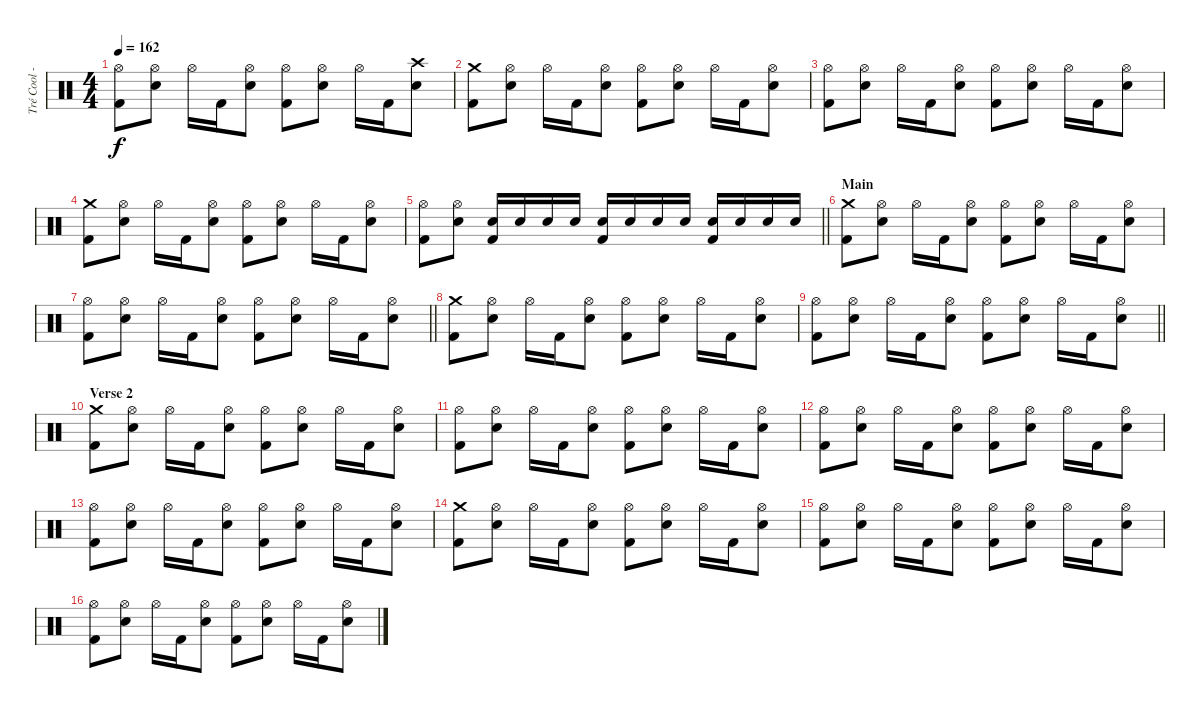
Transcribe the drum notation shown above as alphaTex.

\track ("Tré Cool - Drums" "Tré Cool -") {instrument percussion}
\staff {score}
\articulation defaults
\ts (4 4)
\tempo 162
\clef neutral
\ks c
("Hi-Hat (open)" "Kick (hit) 2").8{dy f} ("Hi-Hat (open)" "Electric Snare (hit)").8 "Hi-Hat (open)".16 "Kick (hit) 2".16 ("Hi-Hat (open)" "Electric Snare (hit)").8 ("Hi-Hat (open)" "Kick (hit) 2").8 ("Hi-Hat (open)" "Electric Snare (hit)").8 "Hi-Hat (open)".16 "Kick (hit) 2".16 ("Crash high (hit)" "Electric Snare (hit)").8 |
("Crash medium (hit)" "Kick (hit) 2").8 ("Hi-Hat (open)" "Electric Snare (hit)").8 "Hi-Hat (open)".16 "Kick (hit) 2".16 ("Hi-Hat (open)" "Electric Snare (hit)").8 ("Hi-Hat (open)" "Kick (hit) 2").8 ("Hi-Hat (open)" "Electric Snare (hit)").8 "Hi-Hat (open)".16 "Kick (hit) 2".16 ("Hi-Hat (open)" "Electric Snare (hit)").8 |
("Hi-Hat (open)" "Kick (hit) 2").8 ("Hi-Hat (open)" "Electric Snare (hit)").8 "Hi-Hat (open)".16 "Kick (hit) 2".16 ("Hi-Hat (open)" "Electric Snare (hit)").8 ("Hi-Hat (open)" "Kick (hit) 2").8 ("Hi-Hat (open)" "Electric Snare (hit)").8 "Hi-Hat (open)".16 "Kick (hit) 2".16 ("Hi-Hat (open)" "Electric Snare (hit)").8 |
("Crash medium (hit)" "Kick (hit) 2").8 ("Hi-Hat (open)" "Electric Snare (hit)").8 "Hi-Hat (open)".16 "Kick (hit) 2".16 ("Hi-Hat (open)" "Electric Snare (hit)").8 ("Hi-Hat (open)" "Kick (hit) 2").8 ("Hi-Hat (open)" "Electric Snare (hit)").8 "Hi-Hat (open)".16 "Kick (hit) 2".16 ("Hi-Hat (open)" "Electric Snare (hit)").8 |
\barLineRight lightlight
("Hi-Hat (open)" "Kick (hit) 2").8 ("Hi-Hat (open)" "Electric Snare (hit)").8 ("Electric Snare (hit)" "Kick (hit) 2").16 "Electric Snare (hit)".16 "Electric Snare (hit)".16 "Electric Snare (hit)".16 ("Electric Snare (hit)" "Kick (hit) 2").16 "Electric Snare (hit)".16 "Electric Snare (hit)".16 "Electric Snare (hit)".16 ("Electric Snare (hit)" "Kick (hit) 2").16 "Electric Snare (hit)".16 "Electric Snare (hit)".16 "Electric Snare (hit)".16 |
\section ("" "Main")
("Crash medium (hit)" "Kick (hit) 2").8 ("Hi-Hat (open)" "Electric Snare (hit)").8 "Hi-Hat (open)".16 "Kick (hit) 2".16 ("Hi-Hat (open)" "Electric Snare (hit)").8 ("Hi-Hat (open)" "Kick (hit) 2").8 ("Hi-Hat (open)" "Electric Snare (hit)").8 "Hi-Hat (open)".16 "Kick (hit) 2".16 ("Hi-Hat (open)" "Electric Snare (hit)").8 |
\barLineRight lightlight
("Hi-Hat (open)" "Kick (hit) 2").8 ("Hi-Hat (open)" "Electric Snare (hit)").8 "Hi-Hat (open)".16 "Kick (hit) 2".16 ("Hi-Hat (open)" "Electric Snare (hit)").8 ("Hi-Hat (open)" "Kick (hit) 2").8 ("Hi-Hat (open)" "Electric Snare (hit)").8 "Hi-Hat (open)".16 "Kick (hit) 2".16 ("Hi-Hat (open)" "Electric Snare (hit)").8 |
("Crash medium (hit)" "Kick (hit) 2").8 ("Hi-Hat (open)" "Electric Snare (hit)").8 "Hi-Hat (open)".16 "Kick (hit) 2".16 ("Hi-Hat (open)" "Electric Snare (hit)").8 ("Hi-Hat (open)" "Kick (hit) 2").8 ("Hi-Hat (open)" "Electric Snare (hit)").8 "Hi-Hat (open)".16 "Kick (hit) 2".16 ("Hi-Hat (open)" "Electric Snare (hit)").8 |
\barLineRight lightlight
("Hi-Hat (open)" "Kick (hit) 2").8 ("Hi-Hat (open)" "Electric Snare (hit)").8 "Hi-Hat (open)".16 "Kick (hit) 2".16 ("Hi-Hat (open)" "Electric Snare (hit)").8 ("Hi-Hat (open)" "Kick (hit) 2").8 ("Hi-Hat (open)" "Electric Snare (hit)").8 "Hi-Hat (open)".16 "Kick (hit) 2".16 ("Hi-Hat (open)" "Electric Snare (hit)").8 |
\section ("" "Verse 2")
("Crash medium (hit)" "Kick (hit) 2").8 ("Hi-Hat (open)" "Electric Snare (hit)").8 "Hi-Hat (open)".16 "Kick (hit) 2".16 ("Hi-Hat (open)" "Electric Snare (hit)").8 ("Hi-Hat (open)" "Kick (hit) 2").8 ("Hi-Hat (open)" "Electric Snare (hit)").8 "Hi-Hat (open)".16 "Kick (hit) 2".16 ("Hi-Hat (open)" "Electric Snare (hit)").8 |
("Hi-Hat (open)" "Kick (hit) 2").8 ("Hi-Hat (open)" "Electric Snare (hit)").8 "Hi-Hat (open)".16 "Kick (hit) 2".16 ("Hi-Hat (open)" "Electric Snare (hit)").8 ("Hi-Hat (open)" "Kick (hit) 2").8 ("Hi-Hat (open)" "Electric Snare (hit)").8 "Hi-Hat (open)".16 "Kick (hit) 2".16 ("Hi-Hat (open)" "Electric Snare (hit)").8 |
("Hi-Hat (open)" "Kick (hit) 2").8 ("Hi-Hat (open)" "Electric Snare (hit)").8 "Hi-Hat (open)".16 "Kick (hit) 2".16 ("Hi-Hat (open)" "Electric Snare (hit)").8 ("Hi-Hat (open)" "Kick (hit) 2").8 ("Hi-Hat (open)" "Electric Snare (hit)").8 "Hi-Hat (open)".16 "Kick (hit) 2".16 ("Hi-Hat (open)" "Electric Snare (hit)").8 |
("Hi-Hat (open)" "Kick (hit) 2").8 ("Hi-Hat (open)" "Electric Snare (hit)").8 "Hi-Hat (open)".16 "Kick (hit) 2".16 ("Hi-Hat (open)" "Electric Snare (hit)").8 ("Hi-Hat (open)" "Kick (hit) 2").8 ("Hi-Hat (open)" "Electric Snare (hit)").8 "Hi-Hat (open)".16 "Kick (hit) 2".16 ("Hi-Hat (open)" "Electric Snare (hit)").8 |
("Crash medium (hit)" "Kick (hit) 2").8 ("Hi-Hat (open)" "Electric Snare (hit)").8 "Hi-Hat (open)".16 "Kick (hit) 2".16 ("Hi-Hat (open)" "Electric Snare (hit)").8 ("Hi-Hat (open)" "Kick (hit) 2").8 ("Hi-Hat (open)" "Electric Snare (hit)").8 "Hi-Hat (open)".16 "Kick (hit) 2".16 ("Hi-Hat (open)" "Electric Snare (hit)").8 |
("Hi-Hat (open)" "Kick (hit) 2").8 ("Hi-Hat (open)" "Electric Snare (hit)").8 "Hi-Hat (open)".16 "Kick (hit) 2".16 ("Hi-Hat (open)" "Electric Snare (hit)").8 ("Hi-Hat (open)" "Kick (hit) 2").8 ("Hi-Hat (open)" "Electric Snare (hit)").8 "Hi-Hat (open)".16 "Kick (hit) 2".16 ("Hi-Hat (open)" "Electric Snare (hit)").8 |
("Hi-Hat (open)" "Kick (hit) 2").8 ("Hi-Hat (open)" "Electric Snare (hit)").8 "Hi-Hat (open)".16 "Kick (hit) 2".16 ("Hi-Hat (open)" "Electric Snare (hit)").8 ("Hi-Hat (open)" "Kick (hit) 2").8 ("Hi-Hat (open)" "Electric Snare (hit)").8 "Hi-Hat (open)".16 "Kick (hit) 2".16 ("Hi-Hat (open)" "Electric Snare (hit)").8
